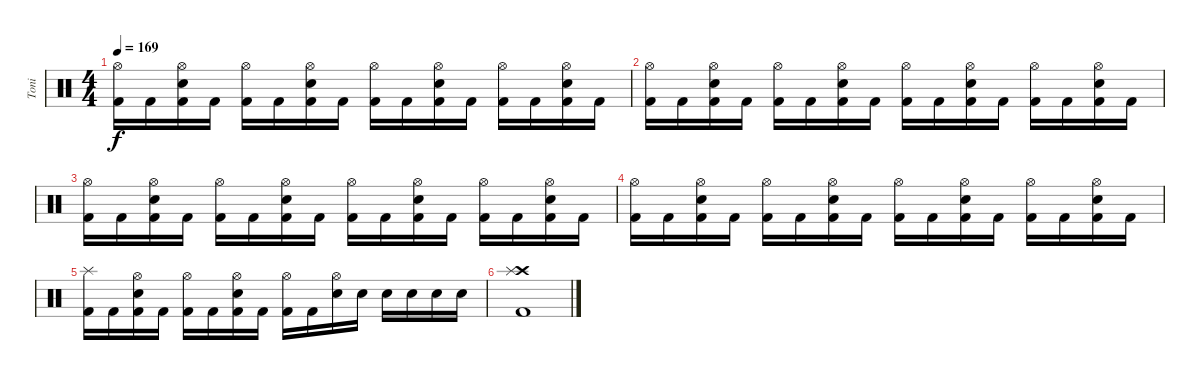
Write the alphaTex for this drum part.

\track ("Toni" "Toni") {instrument percussion}
\staff {score}
\articulation defaults
\ts (4 4)
\tempo 169
\clef neutral
\ks c
("Hi-Hat (open)" "Kick (hit) 2").16{dy f} "Kick (hit) 2".16 ("Hi-Hat (open)" "Electric Snare (hit)" "Kick (hit) 2").16 "Kick (hit) 2".16 ("Hi-Hat (open)" "Kick (hit) 2").16 "Kick (hit) 2".16 ("Hi-Hat (open)" "Electric Snare (hit)" "Kick (hit) 2").16 "Kick (hit) 2".16 ("Hi-Hat (open)" "Kick (hit) 2").16 "Kick (hit) 2".16 ("Hi-Hat (open)" "Electric Snare (hit)" "Kick (hit) 2").16 "Kick (hit) 2".16 ("Hi-Hat (open)" "Kick (hit) 2").16 "Kick (hit) 2".16 ("Hi-Hat (open)" "Electric Snare (hit)" "Kick (hit) 2").16 "Kick (hit) 2".16 |
("Hi-Hat (open)" "Kick (hit) 2").16 "Kick (hit) 2".16 ("Hi-Hat (open)" "Electric Snare (hit)" "Kick (hit) 2").16 "Kick (hit) 2".16 ("Hi-Hat (open)" "Kick (hit) 2").16 "Kick (hit) 2".16 ("Hi-Hat (open)" "Electric Snare (hit)" "Kick (hit) 2").16 "Kick (hit) 2".16 ("Hi-Hat (open)" "Kick (hit) 2").16 "Kick (hit) 2".16 ("Hi-Hat (open)" "Electric Snare (hit)" "Kick (hit) 2").16 "Kick (hit) 2".16 ("Hi-Hat (open)" "Kick (hit) 2").16 "Kick (hit) 2".16 ("Hi-Hat (open)" "Electric Snare (hit)" "Kick (hit) 2").16 "Kick (hit) 2".16 |
("Hi-Hat (open)" "Kick (hit) 2").16 "Kick (hit) 2".16 ("Hi-Hat (open)" "Electric Snare (hit)" "Kick (hit) 2").16 "Kick (hit) 2".16 ("Hi-Hat (open)" "Kick (hit) 2").16 "Kick (hit) 2".16 ("Hi-Hat (open)" "Electric Snare (hit)" "Kick (hit) 2").16 "Kick (hit) 2".16 ("Hi-Hat (open)" "Kick (hit) 2").16 "Kick (hit) 2".16 ("Hi-Hat (open)" "Electric Snare (hit)" "Kick (hit) 2").16 "Kick (hit) 2".16 ("Hi-Hat (open)" "Kick (hit) 2").16 "Kick (hit) 2".16 ("Hi-Hat (open)" "Electric Snare (hit)" "Kick (hit) 2").16 "Kick (hit) 2".16 |
("Hi-Hat (open)" "Kick (hit) 2").16 "Kick (hit) 2".16 ("Hi-Hat (open)" "Electric Snare (hit)" "Kick (hit) 2").16 "Kick (hit) 2".16 ("Hi-Hat (open)" "Kick (hit) 2").16 "Kick (hit) 2".16 ("Hi-Hat (open)" "Electric Snare (hit)" "Kick (hit) 2").16 "Kick (hit) 2".16 ("Hi-Hat (open)" "Kick (hit) 2").16 "Kick (hit) 2".16 ("Hi-Hat (open)" "Electric Snare (hit)" "Kick (hit) 2").16 "Kick (hit) 2".16 ("Hi-Hat (open)" "Kick (hit) 2").16 "Kick (hit) 2".16 ("Hi-Hat (open)" "Electric Snare (hit)" "Kick (hit) 2").16 "Kick (hit) 2".16 |
("Splash (hit)" "Kick (hit) 2").16 "Kick (hit) 2".16 ("Hi-Hat (open)" "Electric Snare (hit)" "Kick (hit) 2").16 "Kick (hit) 2".16 ("Hi-Hat (open)" "Kick (hit) 2").16 "Kick (hit) 2".16 ("Hi-Hat (open)" "Electric Snare (hit)" "Kick (hit) 2").16 "Kick (hit) 2".16 ("Hi-Hat (open)" "Kick (hit) 2").16 "Kick (hit) 2".16 ("Hi-Hat (open)" "Electric Snare (hit)").16 "Electric Snare (hit)".16 "Electric Snare (hit)".16 "Electric Snare (hit)".16 "Electric Snare (hit)".16 "Electric Snare (hit)".16 |
("Crash high (hit)" "Splash (hit)" "Kick (hit) 2").1
